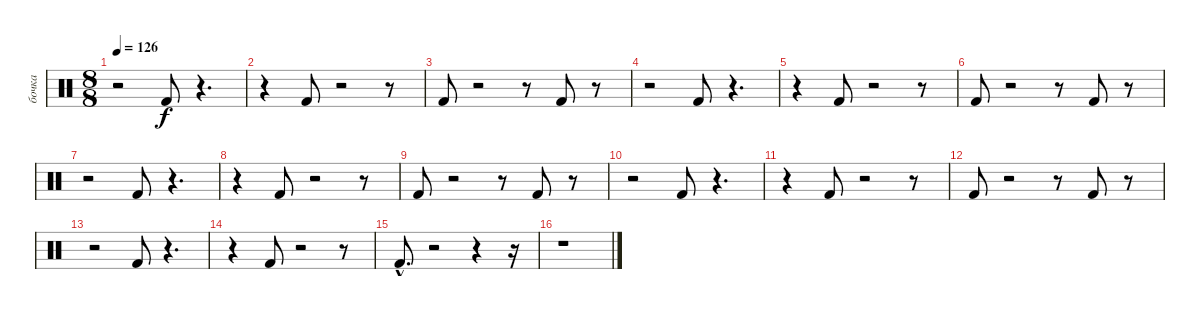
\track ("бочка" "бочка") {instrument percussion}
\staff {score}
\articulation defaults
\ts (8 8)
\tempo 126
\clef neutral
\ks c
r.2{dy f} "Kick (hit) 2".8 r.4{d} |
r.4 "Kick (hit) 2".8 r.2 r.8 |
"Kick (hit) 2".8 r.2 r.8 "Kick (hit) 2".8 r.8 |
r.2 "Kick (hit) 2".8 r.4{d} |
r.4 "Kick (hit) 2".8 r.2 r.8 |
"Kick (hit) 2".8 r.2 r.8 "Kick (hit) 2".8 r.8 |
r.2 "Kick (hit) 2".8 r.4{d} |
r.4 "Kick (hit) 2".8 r.2 r.8 |
"Kick (hit) 2".8 r.2 r.8 "Kick (hit) 2".8 r.8 |
r.2 "Kick (hit) 2".8 r.4{d} |
r.4 "Kick (hit) 2".8 r.2 r.8 |
"Kick (hit) 2".8 r.2 r.8 "Kick (hit) 2".8 r.8 |
r.2 "Kick (hit) 2".8 r.4{d} |
r.4 "Kick (hit) 2".8 r.2 r.8 |
"Kick (hit) 2"{hac}.8{d} r.2 r.4 r.16 |
r.1
